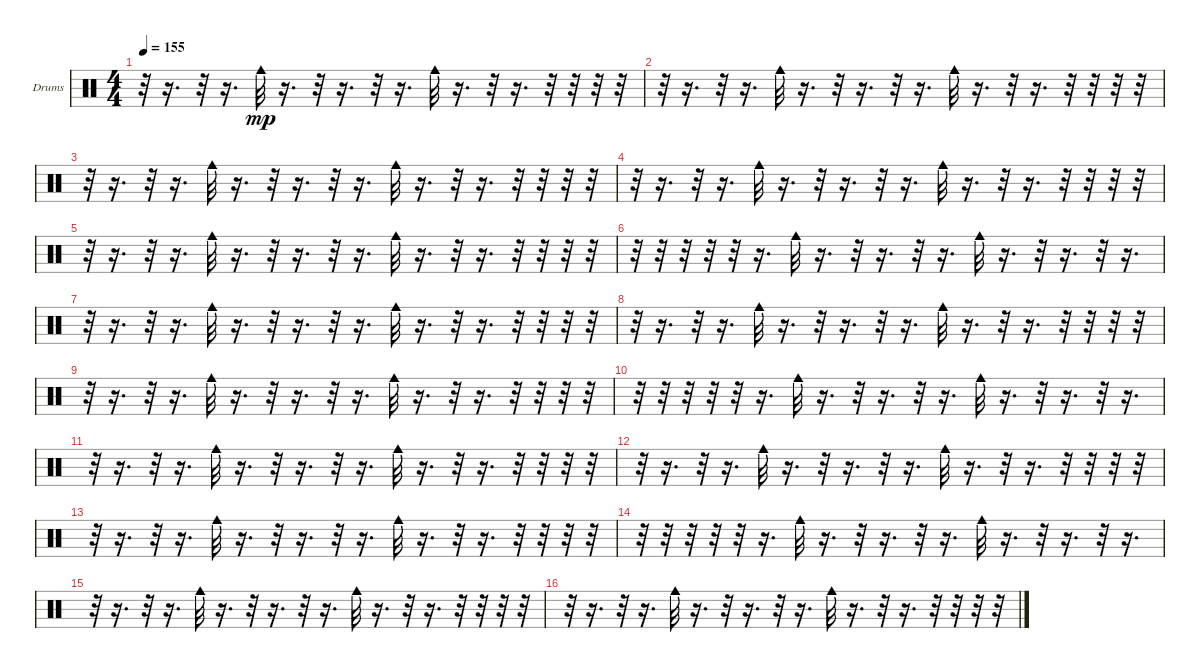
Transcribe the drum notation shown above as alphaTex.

\bracketExtendMode groupsimilarinstruments
\firstSystemTrackNameOrientation horizontal
\otherSystemsTrackNameOrientation horizontal
\track ("Е. Кулаков" "Drums") {instrument percussion}
\staff {score}
\articulation defaults
\ts (4 4)
\tempo 155
\clef neutral
\ks c
r.32{dy mp} r.16{d} r.32 r.16{d} "Cowbell medium (hit)".32 r.16{d} r.32 r.16{d} r.32 r.16{d} "Cowbell medium (hit)".32 r.16{d} r.32 r.16{d} r.32 r.32 r.32 r.32 |
r.32 r.16{d} r.32 r.16{d} "Cowbell medium (hit)".32 r.16{d} r.32 r.16{d} r.32 r.16{d} "Cowbell medium (hit)".32 r.16{d} r.32 r.16{d} r.32 r.32 r.32 r.32 |
r.32 r.16{d} r.32 r.16{d} "Cowbell medium (hit)".32 r.16{d} r.32 r.16{d} r.32 r.16{d} "Cowbell medium (hit)".32 r.16{d} r.32 r.16{d} r.32 r.32 r.32 r.32 |
r.32 r.16{d} r.32 r.16{d} "Cowbell medium (hit)".32 r.16{d} r.32 r.16{d} r.32 r.16{d} "Cowbell medium (hit)".32 r.16{d} r.32 r.16{d} r.32 r.32 r.32 r.32 |
r.32 r.16{d} r.32 r.16{d} "Cowbell medium (hit)".32 r.16{d} r.32 r.16{d} r.32 r.16{d} "Cowbell medium (hit)".32 r.16{d} r.32 r.16{d} r.32 r.32 r.32 r.32 |
r.32 r.32 r.32 r.32 r.32 r.16{d} "Cowbell medium (hit)".32 r.16{d} r.32 r.16{d} r.32 r.16{d} "Cowbell medium (hit)".32 r.16{d} r.32 r.16{d} r.32 r.16{d} |
r.32 r.16{d} r.32 r.16{d} "Cowbell medium (hit)".32 r.16{d} r.32 r.16{d} r.32 r.16{d} "Cowbell medium (hit)".32 r.16{d} r.32 r.16{d} r.32 r.32 r.32 r.32 |
r.32 r.16{d} r.32 r.16{d} "Cowbell medium (hit)".32 r.16{d} r.32 r.16{d} r.32 r.16{d} "Cowbell medium (hit)".32 r.16{d} r.32 r.16{d} r.32 r.32 r.32 r.32 |
r.32 r.16{d} r.32 r.16{d} "Cowbell medium (hit)".32 r.16{d} r.32 r.16{d} r.32 r.16{d} "Cowbell medium (hit)".32 r.16{d} r.32 r.16{d} r.32 r.32 r.32 r.32 |
r.32 r.32 r.32 r.32 r.32 r.16{d} "Cowbell medium (hit)".32 r.16{d} r.32 r.16{d} r.32 r.16{d} "Cowbell medium (hit)".32 r.16{d} r.32 r.16{d} r.32 r.16{d} |
r.32 r.16{d} r.32 r.16{d} "Cowbell medium (hit)".32 r.16{d} r.32 r.16{d} r.32 r.16{d} "Cowbell medium (hit)".32 r.16{d} r.32 r.16{d} r.32 r.32 r.32 r.32 |
r.32 r.16{d} r.32 r.16{d} "Cowbell medium (hit)".32 r.16{d} r.32 r.16{d} r.32 r.16{d} "Cowbell medium (hit)".32 r.16{d} r.32 r.16{d} r.32 r.32 r.32 r.32 |
r.32 r.16{d} r.32 r.16{d} "Cowbell medium (hit)".32 r.16{d} r.32 r.16{d} r.32 r.16{d} "Cowbell medium (hit)".32 r.16{d} r.32 r.16{d} r.32 r.32 r.32 r.32 |
r.32 r.32 r.32 r.32 r.32 r.16{d} "Cowbell medium (hit)".32 r.16{d} r.32 r.16{d} r.32 r.16{d} "Cowbell medium (hit)".32 r.16{d} r.32 r.16{d} r.32 r.16{d} |
r.32 r.16{d} r.32 r.16{d} "Cowbell medium (hit)".32 r.16{d} r.32 r.16{d} r.32 r.16{d} "Cowbell medium (hit)".32 r.16{d} r.32 r.16{d} r.32 r.32 r.32 r.32 |
r.32 r.16{d} r.32 r.16{d} "Cowbell medium (hit)".32 r.16{d} r.32 r.16{d} r.32 r.16{d} "Cowbell medium (hit)".32 r.16{d} r.32 r.16{d} r.32 r.32 r.32 r.32
